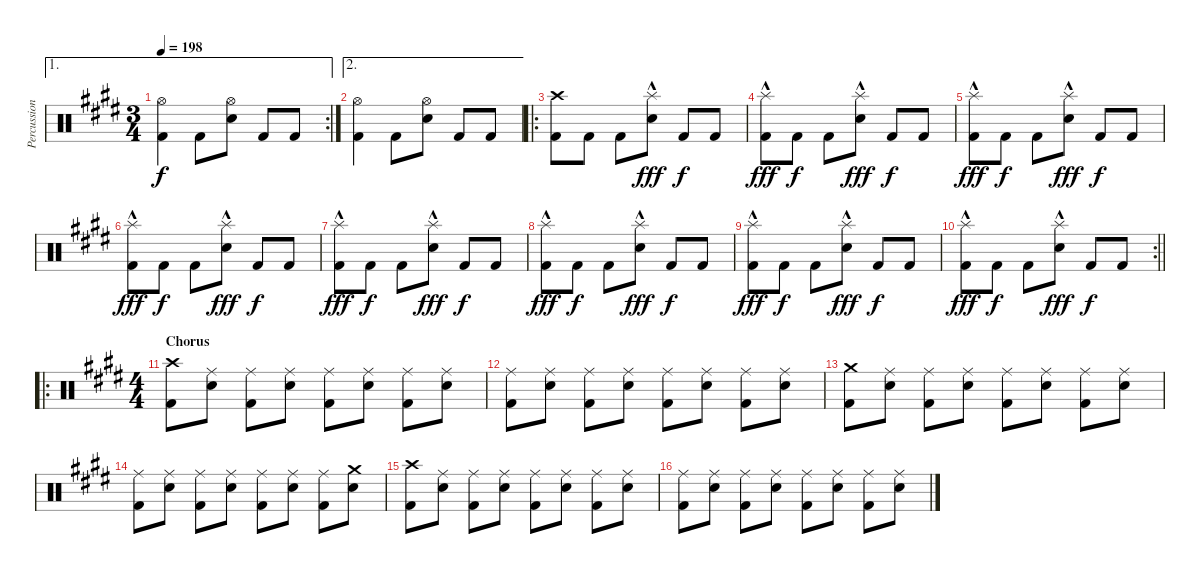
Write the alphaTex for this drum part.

\track ("Percussion" "Percussion") {instrument percussion}
\staff {score}
\articulation defaults
\ae 1
\rc 2
\ts (3 4)
\tempo 198
\clef neutral
\ks e
("Hi-Hat (open)" "Kick (hit) 2").4{dy f} "Kick (hit) 2".8 ("Hi-Hat (open)" "Snare (hit) 2").8 "Kick (hit) 2".8 "Kick (hit) 2".8 |
\ae 2
("Hi-Hat (open)" "Kick (hit) 2").4 "Kick (hit) 2".8 ("Hi-Hat (open)" "Snare (hit) 2").8 "Kick (hit) 2".8 "Kick (hit) 2".8 |
\ro
("Crash high (hit)" "Kick (hit) 2").8 "Kick (hit) 2".8 "Kick (hit) 2".8 ("Splash (hit)"{hac} "Snare (hit) 2").8{dy fff} "Kick (hit) 2".8{dy f} "Kick (hit) 2".8 |
("Splash (hit)"{hac} "Kick (hit) 2").8{dy fff} "Kick (hit) 2".8{dy f} "Kick (hit) 2".8 ("Splash (hit)"{hac} "Snare (hit) 2").8{dy fff} "Kick (hit) 2".8{dy f} "Kick (hit) 2".8 |
("Splash (hit)"{hac} "Kick (hit) 2").8{dy fff} "Kick (hit) 2".8{dy f} "Kick (hit) 2".8 ("Splash (hit)"{hac} "Snare (hit) 2").8{dy fff} "Kick (hit) 2".8{dy f} "Kick (hit) 2".8 |
("Splash (hit)"{hac} "Kick (hit) 2").8{dy fff} "Kick (hit) 2".8{dy f} "Kick (hit) 2".8 ("Splash (hit)"{hac} "Snare (hit) 2").8{dy fff} "Kick (hit) 2".8{dy f} "Kick (hit) 2".8 |
("Splash (hit)"{hac} "Kick (hit) 2").8{dy fff} "Kick (hit) 2".8{dy f} "Kick (hit) 2".8 ("Splash (hit)"{hac} "Snare (hit) 2").8{dy fff} "Kick (hit) 2".8{dy f} "Kick (hit) 2".8 |
("Splash (hit)"{hac} "Kick (hit) 2").8{dy fff} "Kick (hit) 2".8{dy f} "Kick (hit) 2".8 ("Splash (hit)"{hac} "Snare (hit) 2").8{dy fff} "Kick (hit) 2".8{dy f} "Kick (hit) 2".8 |
("Splash (hit)"{hac} "Kick (hit) 2").8{dy fff} "Kick (hit) 2".8{dy f} "Kick (hit) 2".8 ("Splash (hit)"{hac} "Snare (hit) 2").8{dy fff} "Kick (hit) 2".8{dy f} "Kick (hit) 2".8 |
\rc 2
\barLineRight lightlight
("Splash (hit)"{hac} "Kick (hit) 2").8{dy fff} "Kick (hit) 2".8{dy f} "Kick (hit) 2".8 ("Splash (hit)"{hac} "Snare (hit) 2").8{dy fff} "Kick (hit) 2".8{dy f} "Kick (hit) 2".8 |
\ro
\ts (4 4)
\section ("" "Chorus")
("Crash high (hit)" "Kick (hit) 2").8 ("Ride (middle)" "Snare (hit) 2").8 ("Ride (middle)" "Kick (hit) 2").8 ("Ride (middle)" "Snare (hit) 2").8 ("Ride (middle)" "Kick (hit) 2").8 ("Ride (middle)" "Snare (hit) 2").8 ("Ride (middle)" "Kick (hit) 2").8 ("Ride (middle)" "Snare (hit) 2").8 |
("Ride (middle)" "Kick (hit) 2").8 ("Ride (middle)" "Snare (hit) 2").8 ("Ride (middle)" "Kick (hit) 2").8 ("Ride (middle)" "Snare (hit) 2").8 ("Ride (middle)" "Kick (hit) 2").8 ("Ride (middle)" "Snare (hit) 2").8 ("Ride (middle)" "Kick (hit) 2").8 ("Ride (middle)" "Snare (hit) 2").8 |
("Crash medium (hit)" "Kick (hit) 2").8 ("Ride (middle)" "Snare (hit) 2").8 ("Ride (middle)" "Kick (hit) 2").8 ("Ride (middle)" "Snare (hit) 2").8 ("Ride (middle)" "Kick (hit) 2").8 ("Ride (middle)" "Snare (hit) 2").8 ("Ride (middle)" "Kick (hit) 2").8 ("Ride (middle)" "Snare (hit) 2").8 |
("Ride (middle)" "Kick (hit) 2").8 ("Ride (middle)" "Snare (hit) 2").8 ("Ride (middle)" "Kick (hit) 2").8 ("Ride (middle)" "Snare (hit) 2").8 ("Ride (middle)" "Kick (hit) 2").8 ("Ride (middle)" "Snare (hit) 2").8 ("Ride (middle)" "Kick (hit) 2").8 ("Crash medium (hit)" "Snare (hit) 2").8 |
("Crash high (hit)" "Kick (hit) 2").8 ("Ride (middle)" "Snare (hit) 2").8 ("Ride (middle)" "Kick (hit) 2").8 ("Ride (middle)" "Snare (hit) 2").8 ("Ride (middle)" "Kick (hit) 2").8 ("Ride (middle)" "Snare (hit) 2").8 ("Ride (middle)" "Kick (hit) 2").8 ("Ride (middle)" "Snare (hit) 2").8 |
("Ride (middle)" "Kick (hit) 2").8 ("Ride (middle)" "Snare (hit) 2").8 ("Ride (middle)" "Kick (hit) 2").8 ("Ride (middle)" "Snare (hit) 2").8 ("Ride (middle)" "Kick (hit) 2").8 ("Ride (middle)" "Snare (hit) 2").8 ("Ride (middle)" "Kick (hit) 2").8 ("Ride (middle)" "Snare (hit) 2").8
